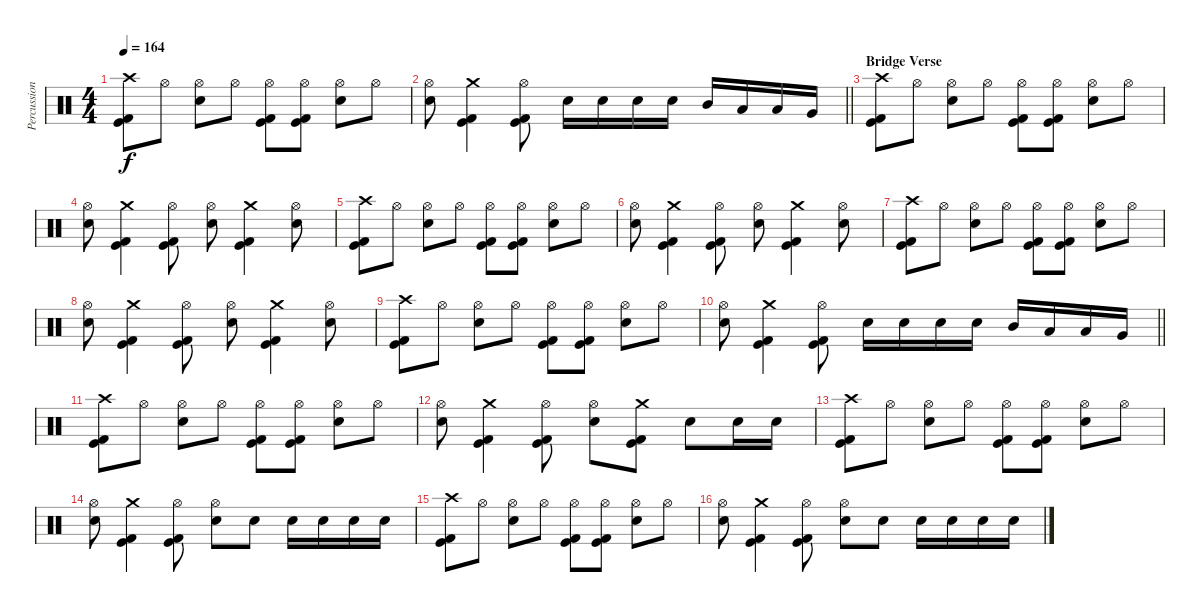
\track ("Percussion" "Percussion") {instrument percussion}
\staff {score}
\articulation defaults
\ts (4 4)
\tempo 164
\clef neutral
\ks c
("Crash high (hit)" "Kick (hit)" "Kick (hit) 2").8{dy f} "Hi-Hat (open)".8 ("Hi-Hat (open)" "Electric Snare (hit)").8 "Hi-Hat (open)".8 ("Hi-Hat (open)" "Kick (hit)" "Kick (hit) 2").8 ("Hi-Hat (open)" "Kick (hit)" "Kick (hit) 2").8 ("Hi-Hat (open)" "Electric Snare (hit)").8 "Hi-Hat (open)".8 |
\barLineRight lightlight
("Hi-Hat (open)" "Electric Snare (hit)").8 ("Crash medium (hit)" "Kick (hit)" "Kick (hit) 2").4 ("Hi-Hat (open)" "Kick (hit)" "Kick (hit) 2").8 "Electric Snare (hit)".16 "Electric Snare (hit)".16 "Electric Snare (hit)".16 "Electric Snare (hit)".16 "Mid Tom (hit)".16 "Low Tom (hit)".16 "Low Tom (hit)".16 "Very Low Tom (hit)".16 |
\section ("" "Bridge Verse")
("Crash high (hit)" "Kick (hit)" "Kick (hit) 2").8 "Hi-Hat (open)".8 ("Hi-Hat (open)" "Electric Snare (hit)").8 "Hi-Hat (open)".8 ("Hi-Hat (open)" "Kick (hit)" "Kick (hit) 2").8 ("Hi-Hat (open)" "Kick (hit)" "Kick (hit) 2").8 ("Hi-Hat (open)" "Electric Snare (hit)").8 "Hi-Hat (open)".8 |
("Hi-Hat (open)" "Electric Snare (hit)").8 ("Crash medium (hit)" "Kick (hit)" "Kick (hit) 2").4 ("Hi-Hat (open)" "Kick (hit)" "Kick (hit) 2").8 ("Hi-Hat (open)" "Electric Snare (hit)").8 ("Crash medium (hit)" "Kick (hit)" "Kick (hit) 2").4 ("Hi-Hat (open)" "Electric Snare (hit)").8 |
("Crash high (hit)" "Kick (hit)" "Kick (hit) 2").8 "Hi-Hat (open)".8 ("Hi-Hat (open)" "Electric Snare (hit)").8 "Hi-Hat (open)".8 ("Hi-Hat (open)" "Kick (hit)" "Kick (hit) 2").8 ("Hi-Hat (open)" "Kick (hit)" "Kick (hit) 2").8 ("Hi-Hat (open)" "Electric Snare (hit)").8 "Hi-Hat (open)".8 |
("Hi-Hat (open)" "Electric Snare (hit)").8 ("Crash medium (hit)" "Kick (hit)" "Kick (hit) 2").4 ("Hi-Hat (open)" "Kick (hit)" "Kick (hit) 2").8 ("Hi-Hat (open)" "Electric Snare (hit)").8 ("Crash medium (hit)" "Kick (hit)" "Kick (hit) 2").4 ("Hi-Hat (open)" "Electric Snare (hit)").8 |
("Crash high (hit)" "Kick (hit)" "Kick (hit) 2").8 "Hi-Hat (open)".8 ("Hi-Hat (open)" "Electric Snare (hit)").8 "Hi-Hat (open)".8 ("Hi-Hat (open)" "Kick (hit)" "Kick (hit) 2").8 ("Hi-Hat (open)" "Kick (hit)" "Kick (hit) 2").8 ("Hi-Hat (open)" "Electric Snare (hit)").8 "Hi-Hat (open)".8 |
("Hi-Hat (open)" "Electric Snare (hit)").8 ("Crash medium (hit)" "Kick (hit)" "Kick (hit) 2").4 ("Hi-Hat (open)" "Kick (hit)" "Kick (hit) 2").8 ("Hi-Hat (open)" "Electric Snare (hit)").8 ("Crash medium (hit)" "Kick (hit)" "Kick (hit) 2").4 ("Hi-Hat (open)" "Electric Snare (hit)").8 |
("Crash high (hit)" "Kick (hit)" "Kick (hit) 2").8 "Hi-Hat (open)".8 ("Hi-Hat (open)" "Electric Snare (hit)").8 "Hi-Hat (open)".8 ("Hi-Hat (open)" "Kick (hit)" "Kick (hit) 2").8 ("Hi-Hat (open)" "Kick (hit)" "Kick (hit) 2").8 ("Hi-Hat (open)" "Electric Snare (hit)").8 "Hi-Hat (open)".8 |
\barLineRight lightlight
("Hi-Hat (open)" "Electric Snare (hit)").8 ("Crash medium (hit)" "Kick (hit)" "Kick (hit) 2").4 ("Hi-Hat (open)" "Kick (hit)" "Kick (hit) 2").8 "Electric Snare (hit)".16 "Electric Snare (hit)".16 "Electric Snare (hit)".16 "Electric Snare (hit)".16 "Mid Tom (hit)".16 "Low Tom (hit)".16 "Low Tom (hit)".16 "Very Low Tom (hit)".16 |
("Crash high (hit)" "Kick (hit)" "Kick (hit) 2").8 "Hi-Hat (open)".8 ("Hi-Hat (open)" "Electric Snare (hit)").8 "Hi-Hat (open)".8 ("Hi-Hat (open)" "Kick (hit)" "Kick (hit) 2").8 ("Hi-Hat (open)" "Kick (hit)" "Kick (hit) 2").8 ("Hi-Hat (open)" "Electric Snare (hit)").8 "Hi-Hat (open)".8 |
("Hi-Hat (open)" "Electric Snare (hit)").8 ("Crash medium (hit)" "Kick (hit)" "Kick (hit) 2").4 ("Hi-Hat (open)" "Kick (hit)" "Kick (hit) 2").8 ("Hi-Hat (open)" "Electric Snare (hit)").8 ("Crash medium (hit)" "Kick (hit)" "Kick (hit) 2").8 "Electric Snare (hit)".8 "Electric Snare (hit)".16 "Electric Snare (hit)".16 |
("Crash high (hit)" "Kick (hit)" "Kick (hit) 2").8 "Hi-Hat (open)".8 ("Hi-Hat (open)" "Electric Snare (hit)").8 "Hi-Hat (open)".8 ("Hi-Hat (open)" "Kick (hit)" "Kick (hit) 2").8 ("Hi-Hat (open)" "Kick (hit)" "Kick (hit) 2").8 ("Hi-Hat (open)" "Electric Snare (hit)").8 "Hi-Hat (open)".8 |
("Hi-Hat (open)" "Electric Snare (hit)").8 ("Crash medium (hit)" "Kick (hit)" "Kick (hit) 2").4 ("Hi-Hat (open)" "Kick (hit)" "Kick (hit) 2").8 ("Hi-Hat (open)" "Electric Snare (hit)").8 "Electric Snare (hit)".8 "Electric Snare (hit)".16 "Electric Snare (hit)".16 "Electric Snare (hit)".16 "Electric Snare (hit)".16 |
("Crash high (hit)" "Kick (hit)" "Kick (hit) 2").8 "Hi-Hat (open)".8 ("Hi-Hat (open)" "Electric Snare (hit)").8 "Hi-Hat (open)".8 ("Hi-Hat (open)" "Kick (hit)" "Kick (hit) 2").8 ("Hi-Hat (open)" "Kick (hit)" "Kick (hit) 2").8 ("Hi-Hat (open)" "Electric Snare (hit)").8 "Hi-Hat (open)".8 |
("Hi-Hat (open)" "Electric Snare (hit)").8 ("Crash medium (hit)" "Kick (hit)" "Kick (hit) 2").4 ("Hi-Hat (open)" "Kick (hit)" "Kick (hit) 2").8 ("Hi-Hat (open)" "Electric Snare (hit)").8 "Electric Snare (hit)".8 "Electric Snare (hit)".16 "Electric Snare (hit)".16 "Electric Snare (hit)".16 "Electric Snare (hit)".16
